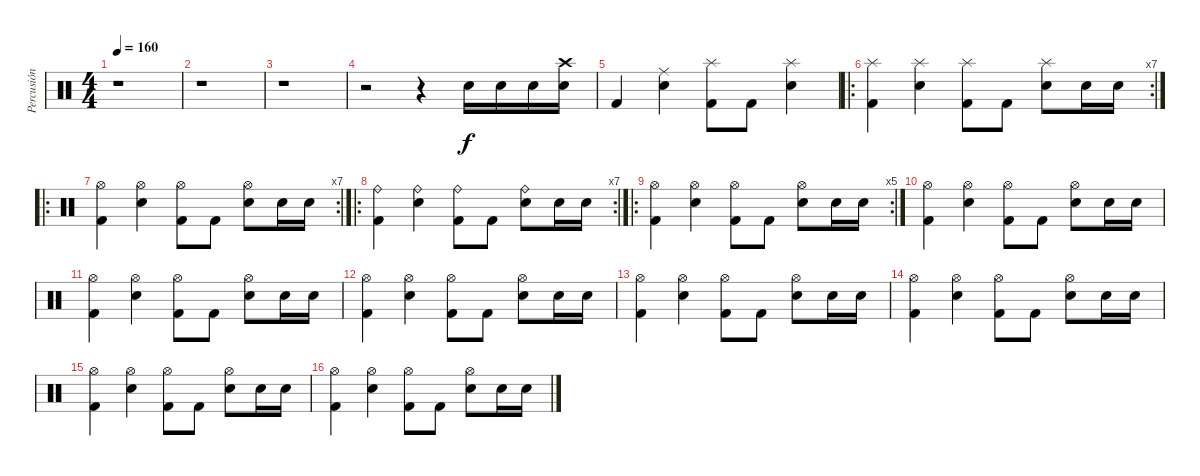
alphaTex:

\track ("Percusión" "Percusión") {instrument percussion}
\staff {score}
\articulation defaults
\ts (4 4)
\tempo 160
\clef neutral
\ks c
r.1{dy f} |
r.1 |
r.1 |
r.2 r.4 "Snare (hit) 2".16 "Snare (hit) 2".16 "Snare (hit) 2".16 ("Crash high (hit)" "Snare (hit) 2").16 |
"Kick (hit) 2".4 ("Ride (middle)" "Snare (hit) 2").4 ("Splash (hit)" "Kick (hit) 2").8 "Kick (hit) 2".8 ("Splash (hit)" "Snare (hit) 2").4 |
\ro
\rc 7
("Splash (hit)" "Kick (hit) 2").4 ("Splash (hit)" "Snare (hit) 2").4 ("Splash (hit)" "Kick (hit) 2").8 "Kick (hit) 2".8 ("Splash (hit)" "Snare (hit) 2").8 "Snare (hit) 2".16 "Snare (hit) 2".16 |
\ro
\rc 7
("Hi-Hat (open)" "Kick (hit) 2").4 ("Hi-Hat (open)" "Snare (hit) 2").4 ("Hi-Hat (open)" "Kick (hit) 2").8 "Kick (hit) 2".8 ("Hi-Hat (open)" "Snare (hit) 2").8 "Snare (hit) 2".16 "Snare (hit) 2".16 |
\ro
\rc 7
("Ride (bell)" "Kick (hit) 2").4 ("Ride (bell)" "Snare (hit) 2").4 ("Ride (bell)" "Kick (hit) 2").8 "Kick (hit) 2".8 ("Ride (bell)" "Snare (hit) 2").8 "Snare (hit) 2".16 "Snare (hit) 2".16 |
\ro
\rc 5
("Hi-Hat (open)" "Kick (hit) 2").4 ("Hi-Hat (open)" "Snare (hit) 2").4 ("Hi-Hat (open)" "Kick (hit) 2").8 "Kick (hit) 2".8 ("Hi-Hat (open)" "Snare (hit) 2").8 "Snare (hit) 2".16 "Snare (hit) 2".16 |
("Hi-Hat (open)" "Kick (hit) 2").4 ("Hi-Hat (open)" "Snare (hit) 2").4 ("Hi-Hat (open)" "Kick (hit) 2").8 "Kick (hit) 2".8 ("Hi-Hat (open)" "Snare (hit) 2").8 "Snare (hit) 2".16 "Snare (hit) 2".16 |
("Hi-Hat (open)" "Kick (hit) 2").4 ("Hi-Hat (open)" "Snare (hit) 2").4 ("Hi-Hat (open)" "Kick (hit) 2").8 "Kick (hit) 2".8 ("Hi-Hat (open)" "Snare (hit) 2").8 "Snare (hit) 2".16 "Snare (hit) 2".16 |
("Hi-Hat (open)" "Kick (hit) 2").4 ("Hi-Hat (open)" "Snare (hit) 2").4 ("Hi-Hat (open)" "Kick (hit) 2").8 "Kick (hit) 2".8 ("Hi-Hat (open)" "Snare (hit) 2").8 "Snare (hit) 2".16 "Snare (hit) 2".16 |
("Hi-Hat (open)" "Kick (hit) 2").4 ("Hi-Hat (open)" "Snare (hit) 2").4 ("Hi-Hat (open)" "Kick (hit) 2").8 "Kick (hit) 2".8 ("Hi-Hat (open)" "Snare (hit) 2").8 "Snare (hit) 2".16 "Snare (hit) 2".16 |
("Hi-Hat (open)" "Kick (hit) 2").4 ("Hi-Hat (open)" "Snare (hit) 2").4 ("Hi-Hat (open)" "Kick (hit) 2").8 "Kick (hit) 2".8 ("Hi-Hat (open)" "Snare (hit) 2").8 "Snare (hit) 2".16 "Snare (hit) 2".16 |
("Hi-Hat (open)" "Kick (hit) 2").4 ("Hi-Hat (open)" "Snare (hit) 2").4 ("Hi-Hat (open)" "Kick (hit) 2").8 "Kick (hit) 2".8 ("Hi-Hat (open)" "Snare (hit) 2").8 "Snare (hit) 2".16 "Snare (hit) 2".16 |
("Hi-Hat (open)" "Kick (hit) 2").4 ("Hi-Hat (open)" "Snare (hit) 2").4 ("Hi-Hat (open)" "Kick (hit) 2").8 "Kick (hit) 2".8 ("Hi-Hat (open)" "Snare (hit) 2").8 "Snare (hit) 2".16 "Snare (hit) 2".16
